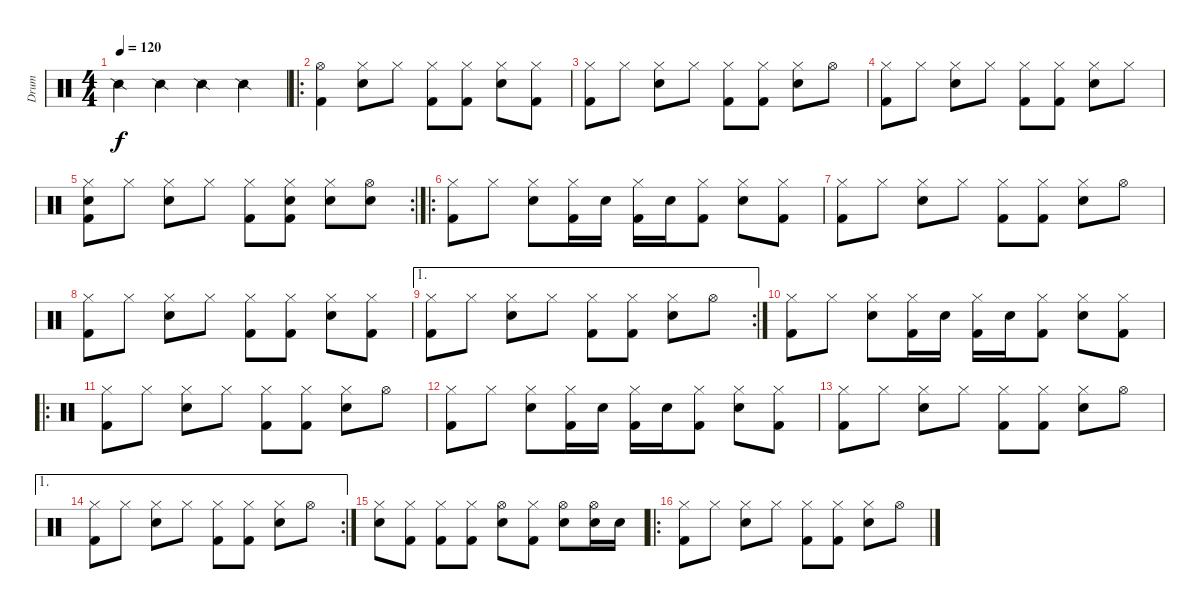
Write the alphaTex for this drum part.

\track ("Drum" "Drum") {instrument percussion}
\staff {score}
\articulation defaults
\ts (4 4)
\tempo 120
\tempo 110
\tempo 120
\clef neutral
\ks c "Snare (side stick) 2".4{dy f} "Snare (side stick) 2".4 "Snare (side stick) 2".4 "Snare (side stick) 2".4
|
\ro
("Hi-Hat (open)" "Kick (hit) 2").4 ("Hi-Hat (closed)" "Snare (hit) 2").8 "Hi-Hat (closed)".8 ("Hi-Hat (closed)" "Kick (hit) 2").8 ("Hi-Hat (closed)" "Kick (hit) 2").8 ("Hi-Hat (closed)" "Snare (hit) 2").8 ("Hi-Hat (closed)" "Kick (hit) 2").8 |
("Hi-Hat (closed)" "Kick (hit) 2").8 "Hi-Hat (closed)".8 ("Hi-Hat (closed)" "Snare (hit) 2").8 "Hi-Hat (closed)".8 ("Hi-Hat (closed)" "Kick (hit) 2").8 ("Hi-Hat (closed)" "Kick (hit) 2").8 ("Hi-Hat (closed)" "Snare (hit) 2").8 "Hi-Hat (open)".8 |
("Hi-Hat (closed)" "Kick (hit) 2").8 "Hi-Hat (closed)".8 ("Hi-Hat (closed)" "Snare (hit) 2").8 "Hi-Hat (closed)".8 ("Hi-Hat (closed)" "Kick (hit) 2").8 ("Hi-Hat (closed)" "Kick (hit) 2").8 ("Hi-Hat (closed)" "Snare (hit) 2").8 "Hi-Hat (closed)".8 |
\rc 2
("Hi-Hat (closed)" "Snare (hit) 2" "Kick (hit) 2").8 "Hi-Hat (closed)".8 ("Hi-Hat (closed)" "Snare (hit) 2").8 "Hi-Hat (closed)".8 ("Hi-Hat (closed)" "Kick (hit) 2").8 ("Hi-Hat (closed)" "Snare (hit) 2" "Kick (hit) 2").8 ("Hi-Hat (closed)" "Snare (hit) 2").8 ("Hi-Hat (open)" "Snare (hit) 2").8 |
\ro
("Hi-Hat (closed)" "Kick (hit) 2").8 "Hi-Hat (closed)".8 ("Hi-Hat (closed)" "Snare (hit) 2").8 ("Hi-Hat (closed)" "Kick (hit) 2").16 "Snare (hit) 2".16 ("Hi-Hat (closed)" "Kick (hit) 2").16 "Snare (hit) 2".16 ("Hi-Hat (closed)" "Kick (hit) 2").8 ("Hi-Hat (closed)" "Snare (hit) 2").8 ("Hi-Hat (closed)" "Kick (hit) 2").8 |
("Hi-Hat (closed)" "Kick (hit) 2").8 "Hi-Hat (closed)".8 ("Hi-Hat (closed)" "Snare (hit) 2").8 "Hi-Hat (closed)".8 ("Hi-Hat (closed)" "Kick (hit) 2").8 ("Hi-Hat (closed)" "Kick (hit) 2").8 ("Hi-Hat (closed)" "Snare (hit) 2").8 "Hi-Hat (open)".8 |
("Hi-Hat (closed)" "Kick (hit) 2").8 "Hi-Hat (closed)".8 ("Hi-Hat (closed)" "Snare (hit) 2").8 "Hi-Hat (closed)".8 ("Hi-Hat (closed)" "Kick (hit) 2").8 ("Hi-Hat (closed)" "Kick (hit) 2").8 ("Hi-Hat (closed)" "Snare (hit) 2").8 ("Hi-Hat (closed)" "Kick (hit) 2").8 |
\ae 1
\rc 2
("Hi-Hat (closed)" "Kick (hit) 2").8 "Hi-Hat (closed)".8 ("Hi-Hat (closed)" "Snare (hit) 2").8 "Hi-Hat (closed)".8 ("Hi-Hat (closed)" "Kick (hit) 2").8 ("Hi-Hat (closed)" "Kick (hit) 2").8 ("Hi-Hat (closed)" "Snare (hit) 2").8 "Hi-Hat (open)".8 |
("Hi-Hat (closed)" "Kick (hit) 2").8 "Hi-Hat (closed)".8 ("Hi-Hat (closed)" "Snare (hit) 2").8 ("Hi-Hat (closed)" "Kick (hit) 2").16 "Snare (hit) 2".16 ("Hi-Hat (closed)" "Kick (hit) 2").16 "Snare (hit) 2".16 ("Hi-Hat (closed)" "Kick (hit) 2").8 ("Hi-Hat (closed)" "Snare (hit) 2").8 ("Hi-Hat (closed)" "Kick (hit) 2").8 |
\ro
("Hi-Hat (closed)" "Kick (hit) 2").8 "Hi-Hat (closed)".8 ("Hi-Hat (closed)" "Snare (hit) 2").8 "Hi-Hat (closed)".8 ("Hi-Hat (closed)" "Kick (hit) 2").8 ("Hi-Hat (closed)" "Kick (hit) 2").8 ("Hi-Hat (closed)" "Snare (hit) 2").8 "Hi-Hat (open)".8 |
("Hi-Hat (closed)" "Kick (hit) 2").8 "Hi-Hat (closed)".8 ("Hi-Hat (closed)" "Snare (hit) 2").8 ("Hi-Hat (closed)" "Kick (hit) 2").16 "Snare (hit) 2".16 ("Hi-Hat (closed)" "Kick (hit) 2").16 "Snare (hit) 2".16 ("Hi-Hat (closed)" "Kick (hit) 2").8 ("Hi-Hat (closed)" "Snare (hit) 2").8 ("Hi-Hat (closed)" "Kick (hit) 2").8 |
("Hi-Hat (closed)" "Kick (hit) 2").8 "Hi-Hat (closed)".8 ("Hi-Hat (closed)" "Snare (hit) 2").8 "Hi-Hat (closed)".8 ("Hi-Hat (closed)" "Kick (hit) 2").8 ("Hi-Hat (closed)" "Kick (hit) 2").8 ("Hi-Hat (closed)" "Snare (hit) 2").8 "Hi-Hat (open)".8 |
\ae 1
\rc 2
("Hi-Hat (closed)" "Kick (hit) 2").8 "Hi-Hat (closed)".8 ("Hi-Hat (closed)" "Snare (hit) 2").8 "Hi-Hat (closed)".8 ("Hi-Hat (closed)" "Kick (hit) 2").8 ("Hi-Hat (closed)" "Kick (hit) 2").8 ("Hi-Hat (closed)" "Snare (hit) 2").8 "Hi-Hat (open)".8 |
("Hi-Hat (closed)" "Snare (hit) 2").8 ("Hi-Hat (closed)" "Kick (hit) 2").8 ("Hi-Hat (closed)" "Kick (hit) 2").8 ("Hi-Hat (closed)" "Kick (hit) 2").8 ("Hi-Hat (open)" "Snare (hit) 2").8 ("Hi-Hat (closed)" "Kick (hit) 2").8 ("Hi-Hat (open)" "Snare (hit) 2").8 ("Hi-Hat (open)" "Snare (hit) 2").16 "Snare (hit) 2".16 |
\ro
("Hi-Hat (closed)" "Kick (hit) 2").8 "Hi-Hat (closed)".8 ("Hi-Hat (closed)" "Snare (hit) 2").8 "Hi-Hat (closed)".8 ("Hi-Hat (closed)" "Kick (hit) 2").8 ("Hi-Hat (closed)" "Kick (hit) 2").8 ("Hi-Hat (closed)" "Snare (hit) 2").8 "Hi-Hat (open)".8
